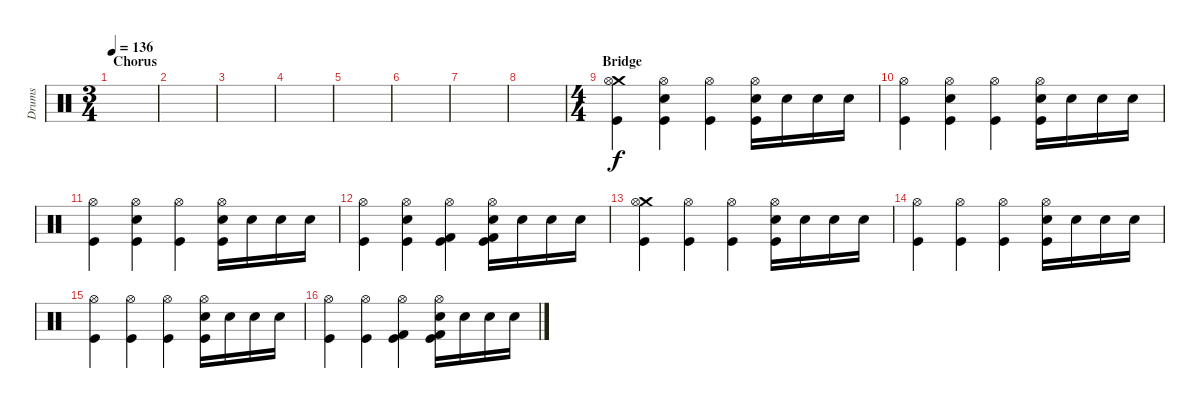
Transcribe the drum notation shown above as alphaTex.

\track ("Drums" "Drums") {instrument percussion}
\staff {score}
\articulation defaults
\ts (3 4)
\section ("" "Chorus")
\tempo 136
\clef neutral
\ks c
|
|
|
|
|
|
|
|
\ts (4 4)
\section ("" "Bridge")
("Crash medium (hit)" "Hi-Hat (open)" "Kick (hit)").4 ("Hi-Hat (open)" "Electric Snare (hit)" "Kick (hit)").4 ("Hi-Hat (open)" "Kick (hit)").4 ("Hi-Hat (open)" "Electric Snare (hit)" "Kick (hit)").16 "Electric Snare (hit)".16 "Electric Snare (hit)".16 "Electric Snare (hit)".16 |
("Hi-Hat (open)" "Kick (hit)").4 ("Hi-Hat (open)" "Electric Snare (hit)" "Kick (hit)").4 ("Hi-Hat (open)" "Kick (hit)").4 ("Hi-Hat (open)" "Electric Snare (hit)" "Kick (hit)").16 "Electric Snare (hit)".16 "Electric Snare (hit)".16 "Electric Snare (hit)".16 |
("Hi-Hat (open)" "Kick (hit)").4 ("Hi-Hat (open)" "Electric Snare (hit)" "Kick (hit)").4 ("Hi-Hat (open)" "Kick (hit)").4 ("Hi-Hat (open)" "Electric Snare (hit)" "Kick (hit)").16 "Electric Snare (hit)".16 "Electric Snare (hit)".16 "Electric Snare (hit)".16 |
("Hi-Hat (open)" "Kick (hit)").4 ("Hi-Hat (open)" "Electric Snare (hit)" "Kick (hit)").4 ("Hi-Hat (open)" "Kick (hit) 2" "Kick (hit)").4 ("Hi-Hat (open)" "Electric Snare (hit)" "Kick (hit) 2" "Kick (hit)").16 "Electric Snare (hit)".16 "Electric Snare (hit)".16 "Electric Snare (hit)".16 |
("Crash medium (hit)" "Hi-Hat (open)" "Kick (hit)").4 ("Hi-Hat (open)" "Kick (hit)").4 ("Hi-Hat (open)" "Kick (hit)").4 ("Hi-Hat (open)" "Electric Snare (hit)" "Kick (hit)").16 "Electric Snare (hit)".16 "Electric Snare (hit)".16 "Electric Snare (hit)".16 |
("Hi-Hat (open)" "Kick (hit)").4 ("Hi-Hat (open)" "Kick (hit)").4 ("Hi-Hat (open)" "Kick (hit)").4 ("Hi-Hat (open)" "Electric Snare (hit)" "Kick (hit)").16 "Electric Snare (hit)".16 "Electric Snare (hit)".16 "Electric Snare (hit)".16 |
("Hi-Hat (open)" "Kick (hit)").4 ("Hi-Hat (open)" "Kick (hit)").4 ("Hi-Hat (open)" "Kick (hit)").4 ("Hi-Hat (open)" "Electric Snare (hit)" "Kick (hit)").16 "Electric Snare (hit)".16 "Electric Snare (hit)".16 "Electric Snare (hit)".16 |
("Hi-Hat (open)" "Kick (hit)").4 ("Hi-Hat (open)" "Kick (hit)").4 ("Hi-Hat (open)" "Kick (hit) 2" "Kick (hit)").4 ("Hi-Hat (open)" "Electric Snare (hit)" "Kick (hit) 2" "Kick (hit)").16 "Electric Snare (hit)".16 "Electric Snare (hit)".16 "Electric Snare (hit)".16
